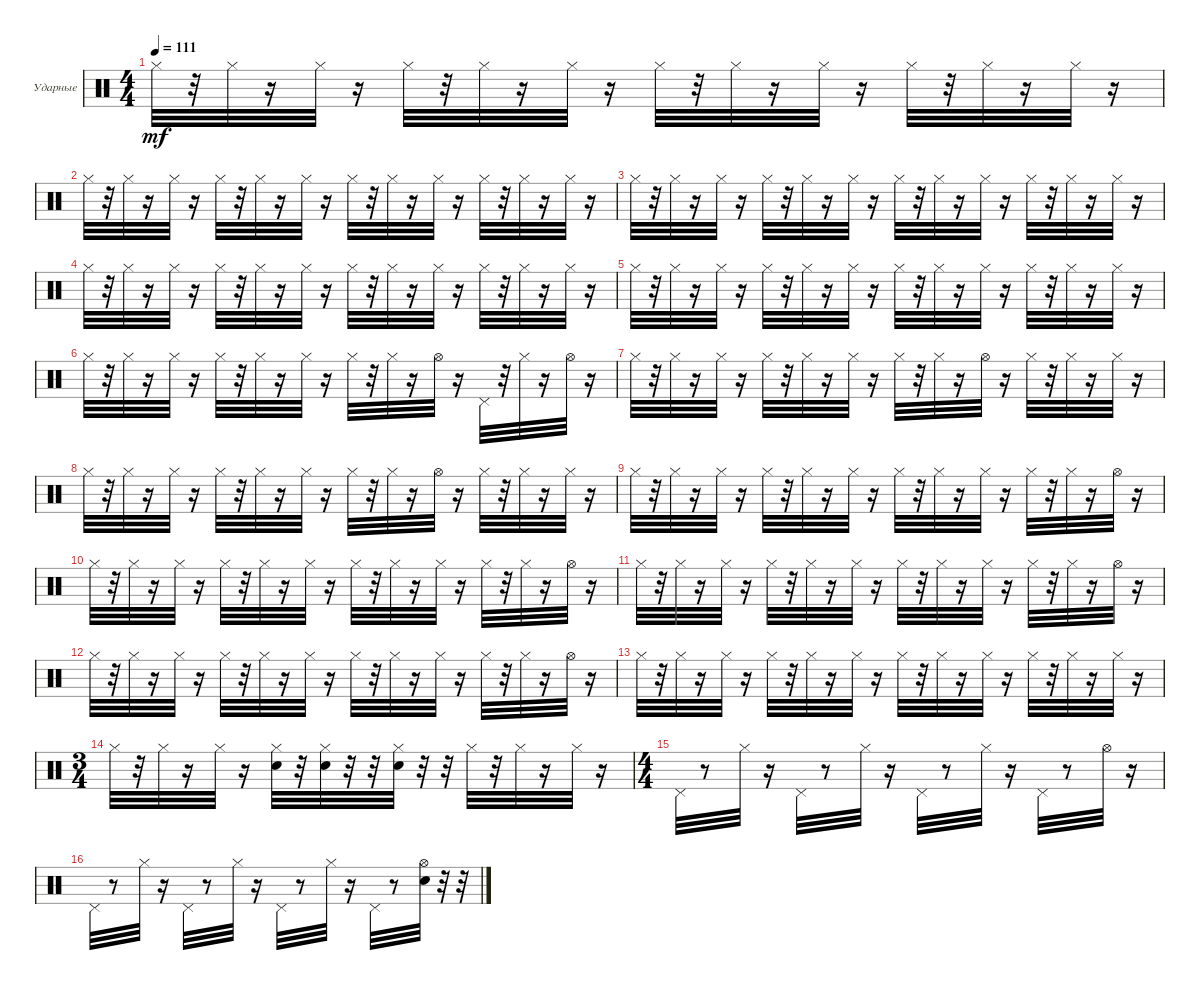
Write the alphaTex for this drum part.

\bracketExtendMode groupsimilarinstruments
\firstSystemTrackNameOrientation horizontal
\otherSystemsTrackNameOrientation horizontal
\track ("Ударные" "Ударные") {instrument percussion}
\staff {score}
\articulation defaults
\ts (4 4)
\tempo 111
\clef neutral
\ks c "Hi-Hat (closed)".32{dy mf}
r.32 "Hi-Hat (closed)".32 r.16 "Hi-Hat (closed)".32 r.16 "Hi-Hat (closed)".32 r.32 "Hi-Hat (closed)".32 r.16 "Hi-Hat (closed)".32 r.16 "Hi-Hat (closed)".32 r.32 "Hi-Hat (closed)".32 r.16 "Hi-Hat (closed)".32 r.16 "Hi-Hat (closed)".32 r.32 "Hi-Hat (closed)".32 r.16 "Hi-Hat (closed)".32 r.16 |
"Hi-Hat (closed)".32 r.32 "Hi-Hat (closed)".32 r.16 "Hi-Hat (closed)".32 r.16 "Hi-Hat (closed)".32 r.32 "Hi-Hat (closed)".32 r.16 "Hi-Hat (closed)".32 r.16 "Hi-Hat (closed)".32 r.32 "Hi-Hat (closed)".32 r.16 "Hi-Hat (closed)".32 r.16 "Hi-Hat (closed)".32 r.32 "Hi-Hat (closed)".32 r.16 "Hi-Hat (closed)".32 r.16 |
"Hi-Hat (closed)".32 r.32 "Hi-Hat (closed)".32 r.16 "Hi-Hat (closed)".32 r.16 "Hi-Hat (closed)".32 r.32 "Hi-Hat (closed)".32 r.16 "Hi-Hat (closed)".32 r.16 "Hi-Hat (closed)".32 r.32 "Hi-Hat (closed)".32 r.16 "Hi-Hat (closed)".32 r.16 "Hi-Hat (closed)".32 r.32 "Hi-Hat (closed)".32 r.16 "Hi-Hat (closed)".32 r.16 |
"Hi-Hat (closed)".32 r.32 "Hi-Hat (closed)".32 r.16 "Hi-Hat (closed)".32 r.16 "Hi-Hat (closed)".32 r.32 "Hi-Hat (closed)".32 r.16 "Hi-Hat (closed)".32 r.16 "Hi-Hat (closed)".32 r.32 "Hi-Hat (closed)".32 r.16 "Hi-Hat (closed)".32 r.16 "Hi-Hat (closed)".32 r.32 "Hi-Hat (closed)".32 r.16 "Hi-Hat (closed)".32 r.16 |
"Hi-Hat (closed)".32 r.32 "Hi-Hat (closed)".32 r.16 "Hi-Hat (closed)".32 r.16 "Hi-Hat (closed)".32 r.32 "Hi-Hat (closed)".32 r.16 "Hi-Hat (closed)".32 r.16 "Hi-Hat (closed)".32 r.32 "Hi-Hat (closed)".32 r.16 "Hi-Hat (closed)".32 r.16 "Hi-Hat (closed)".32 r.32 "Hi-Hat (closed)".32 r.16 "Hi-Hat (closed)".32 r.16 |
"Hi-Hat (closed)".32 r.32 "Hi-Hat (closed)".32 r.16 "Hi-Hat (closed)".32 r.16 "Hi-Hat (closed)".32 r.32 "Hi-Hat (closed)".32 r.16 "Hi-Hat (closed)".32 r.16 "Hi-Hat (closed)".32 r.32 "Hi-Hat (closed)".32 r.16 "Hi-Hat (open)".32 r.16 "Pedal Hi-Hat (hit)".32 r.32 "Hi-Hat (closed)".32 r.16 "Hi-Hat (open)".32 r.16 |
"Hi-Hat (closed)".32 r.32 "Hi-Hat (closed)".32 r.16 "Hi-Hat (closed)".32 r.16 "Hi-Hat (closed)".32 r.32 "Hi-Hat (closed)".32 r.16 "Hi-Hat (closed)".32 r.16 "Hi-Hat (closed)".32 r.32 "Hi-Hat (closed)".32 r.16 "Hi-Hat (open)".32 r.16 "Hi-Hat (closed)".32 r.32 "Hi-Hat (closed)".32 r.16 "Hi-Hat (closed)".32 r.16 |
"Hi-Hat (closed)".32 r.32 "Hi-Hat (closed)".32 r.16 "Hi-Hat (closed)".32 r.16 "Hi-Hat (closed)".32 r.32 "Hi-Hat (closed)".32 r.16 "Hi-Hat (closed)".32 r.16 "Hi-Hat (closed)".32 r.32 "Hi-Hat (closed)".32 r.16 "Hi-Hat (open)".32 r.16 "Hi-Hat (closed)".32 r.32 "Hi-Hat (closed)".32 r.16 "Hi-Hat (closed)".32 r.16 |
"Hi-Hat (closed)".32 r.32 "Hi-Hat (closed)".32 r.16 "Hi-Hat (closed)".32 r.16 "Hi-Hat (closed)".32 r.32 "Hi-Hat (closed)".32 r.16 "Hi-Hat (closed)".32 r.16 "Hi-Hat (closed)".32 r.32 "Hi-Hat (closed)".32 r.16 "Hi-Hat (closed)".32 r.16 "Hi-Hat (closed)".32 r.32 "Hi-Hat (closed)".32 r.16 "Hi-Hat (open)".32 r.16 |
"Hi-Hat (closed)".32 r.32 "Hi-Hat (closed)".32 r.16 "Hi-Hat (closed)".32 r.16 "Hi-Hat (closed)".32 r.32 "Hi-Hat (closed)".32 r.16 "Hi-Hat (closed)".32 r.16 "Hi-Hat (closed)".32 r.32 "Hi-Hat (closed)".32 r.16 "Hi-Hat (closed)".32 r.16 "Hi-Hat (closed)".32 r.32 "Hi-Hat (closed)".32 r.16 "Hi-Hat (open)".32 r.16 |
"Hi-Hat (closed)".32 r.32 "Hi-Hat (closed)".32 r.16 "Hi-Hat (closed)".32 r.16 "Hi-Hat (closed)".32 r.32 "Hi-Hat (closed)".32 r.16 "Hi-Hat (closed)".32 r.16 "Hi-Hat (closed)".32 r.32 "Hi-Hat (closed)".32 r.16 "Hi-Hat (closed)".32 r.16 "Hi-Hat (closed)".32 r.32 "Hi-Hat (closed)".32 r.16 "Hi-Hat (open)".32 r.16 |
"Hi-Hat (closed)".32 r.32 "Hi-Hat (closed)".32 r.16 "Hi-Hat (closed)".32 r.16 "Hi-Hat (closed)".32 r.32 "Hi-Hat (closed)".32 r.16 "Hi-Hat (closed)".32 r.16 "Hi-Hat (closed)".32 r.32 "Hi-Hat (closed)".32 r.16 "Hi-Hat (closed)".32 r.16 "Hi-Hat (closed)".32 r.32 "Hi-Hat (closed)".32 r.16 "Hi-Hat (open)".32 r.16 |
"Hi-Hat (closed)".32 r.32 "Hi-Hat (closed)".32 r.16 "Hi-Hat (closed)".32 r.16 "Hi-Hat (closed)".32 r.32 "Hi-Hat (closed)".32 r.16 "Hi-Hat (closed)".32 r.16 "Hi-Hat (closed)".32 r.32 "Hi-Hat (closed)".32 r.16 "Hi-Hat (closed)".32 r.16 "Hi-Hat (closed)".32 r.32 "Hi-Hat (closed)".32 r.16 "Hi-Hat (closed)".32 r.16 |
\ts (3 4)
"Hi-Hat (closed)".32 r.32 "Hi-Hat (closed)".32 r.16 "Hi-Hat (closed)".32 r.16 ("Hi-Hat (closed)" "Snare (hit) 2").32 r.32 ("Hi-Hat (closed)" "Snare (hit) 2").32 r.32 r.32 ("Hi-Hat (closed)" "Snare (hit) 2").32 r.32 r.32 "Hi-Hat (closed)".32 r.32 "Hi-Hat (closed)".32 r.16 "Hi-Hat (closed)".32 r.16 |
\ts (4 4)
"Pedal Hi-Hat (hit)".32 r.8 "Hi-Hat (closed)".32 r.16 "Pedal Hi-Hat (hit)".32 r.8 "Hi-Hat (closed)".32 r.16 "Pedal Hi-Hat (hit)".32 r.8 "Hi-Hat (closed)".32 r.16 "Pedal Hi-Hat (hit)".32 r.8 "Hi-Hat (open)".32 r.16 |
"Pedal Hi-Hat (hit)".32 r.8 "Hi-Hat (closed)".32 r.16 "Pedal Hi-Hat (hit)".32 r.8 "Hi-Hat (closed)".32 r.16 "Pedal Hi-Hat (hit)".32 r.8 "Hi-Hat (closed)".32 r.16 "Pedal Hi-Hat (hit)".32 r.8 ("Hi-Hat (open)" "Snare (hit) 2").32 r.32 r.32
